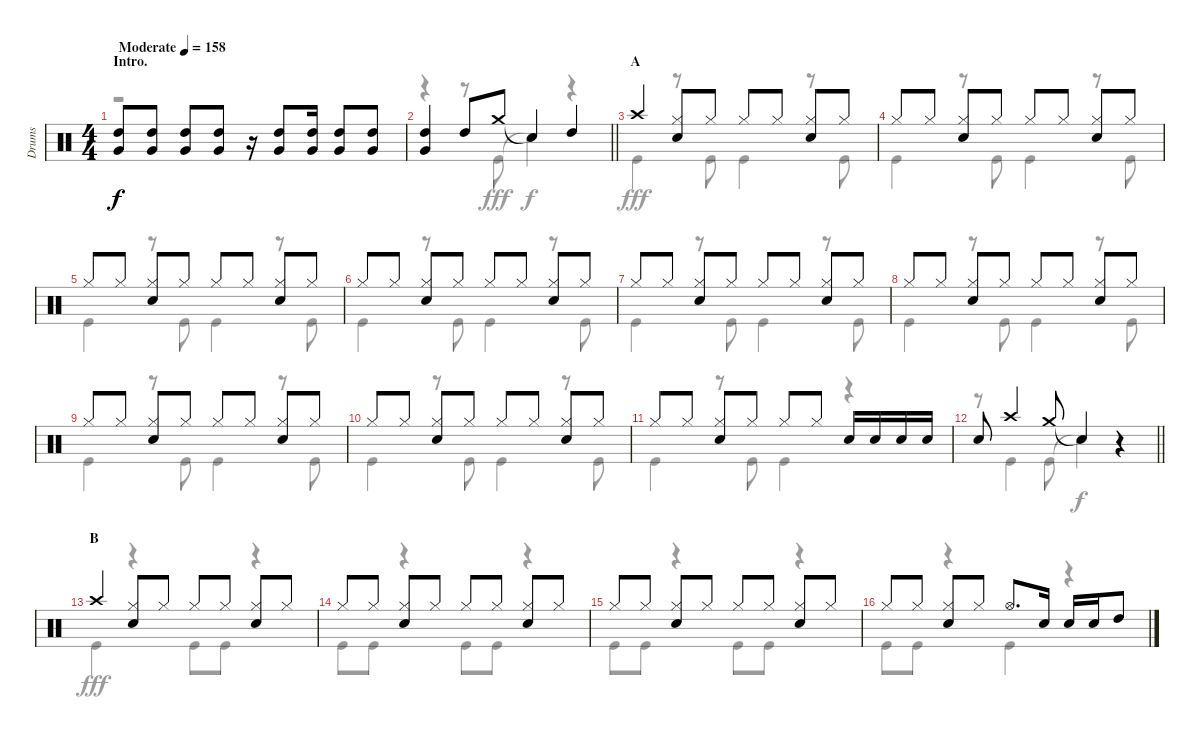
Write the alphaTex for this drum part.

\track ("Drums" "Drums") {instrument percussion}
\staff {score}
\articulation defaults
\voice
\ts (4 4)
\section ("" "Intro.")
\tempo (158 "Moderate")
\clef neutral
\ks c
("High Tom (hit)" "Very Low Tom (hit)").8{dy f} ("High Tom (hit)" "Very Low Tom (hit)").8 ("High Tom (hit)" "Very Low Tom (hit)").8 ("High Tom (hit)" "Very Low Tom (hit)").8 r.16 ("High Tom (hit)" "Very Low Tom (hit)").8 ("High Tom (hit)" "Very Low Tom (hit)").16 ("High Tom (hit)" "Very Low Tom (hit)").8 ("High Tom (hit)" "Very Low Tom (hit)").8 |
\barLineRight lightlight
("High Tom (hit)" "Very Low Tom (hit)").4 "High Tom (hit)".8 "Crash medium (hit)".8 "Snare (hit)"{t}.4 "High Tom (hit)".4 |
\section ("" "A")
"Crash high (hit)".4 ("Hi-Hat (closed)" "Snare (hit) 2").8 "Hi-Hat (closed)".8 "Hi-Hat (closed)".8 "Hi-Hat (closed)".8 ("Hi-Hat (closed)" "Snare (hit) 2").8 "Hi-Hat (closed)".8 |
"Hi-Hat (closed)".8 "Hi-Hat (closed)".8 ("Hi-Hat (closed)" "Snare (hit) 2").8 "Hi-Hat (closed)".8 "Hi-Hat (closed)".8 "Hi-Hat (closed)".8 ("Hi-Hat (closed)" "Snare (hit) 2").8 "Hi-Hat (closed)".8 |
"Hi-Hat (closed)".8 "Hi-Hat (closed)".8 ("Hi-Hat (closed)" "Snare (hit) 2").8 "Hi-Hat (closed)".8 "Hi-Hat (closed)".8 "Hi-Hat (closed)".8 ("Hi-Hat (closed)" "Snare (hit) 2").8 "Hi-Hat (closed)".8 |
"Hi-Hat (closed)".8 "Hi-Hat (closed)".8 ("Hi-Hat (closed)" "Snare (hit) 2").8 "Hi-Hat (closed)".8 "Hi-Hat (closed)".8 "Hi-Hat (closed)".8 ("Hi-Hat (closed)" "Snare (hit) 2").8 "Hi-Hat (closed)".8 |
"Hi-Hat (closed)".8 "Hi-Hat (closed)".8 ("Hi-Hat (closed)" "Snare (hit) 2").8 "Hi-Hat (closed)".8 "Hi-Hat (closed)".8 "Hi-Hat (closed)".8 ("Hi-Hat (closed)" "Snare (hit) 2").8 "Hi-Hat (closed)".8 |
"Hi-Hat (closed)".8 "Hi-Hat (closed)".8 ("Hi-Hat (closed)" "Snare (hit) 2").8 "Hi-Hat (closed)".8 "Hi-Hat (closed)".8 "Hi-Hat (closed)".8 ("Hi-Hat (closed)" "Snare (hit) 2").8 "Hi-Hat (closed)".8 |
"Hi-Hat (closed)".8 "Hi-Hat (closed)".8 ("Hi-Hat (closed)" "Snare (hit) 2").8 "Hi-Hat (closed)".8 "Hi-Hat (closed)".8 "Hi-Hat (closed)".8 ("Hi-Hat (closed)" "Snare (hit) 2").8 "Hi-Hat (closed)".8 |
"Hi-Hat (closed)".8 "Hi-Hat (closed)".8 ("Hi-Hat (closed)" "Snare (hit) 2").8 "Hi-Hat (closed)".8 "Hi-Hat (closed)".8 "Hi-Hat (closed)".8 ("Hi-Hat (closed)" "Snare (hit) 2").8 "Hi-Hat (closed)".8 |
"Hi-Hat (closed)".8 "Hi-Hat (closed)".8 ("Hi-Hat (closed)" "Snare (hit) 2").8 "Hi-Hat (closed)".8 "Hi-Hat (closed)".8 "Hi-Hat (closed)".8 "Snare (hit) 2".16 "Snare (hit) 2".16 "Snare (hit) 2".16 "Snare (hit) 2".16 |
\barLineRight lightlight "Snare (hit) 2".8 "Crash high (hit)".4 "Crash medium (hit)".8 "Snare (hit)"{t}.4
r.4 |
\section ("" "B")
"Crash high (hit)".4 ("Hi-Hat (closed)" "Snare (hit) 2").8 "Hi-Hat (closed)".8 "Hi-Hat (closed)".8 "Hi-Hat (closed)".8 ("Hi-Hat (closed)" "Snare (hit) 2").8 "Hi-Hat (closed)".8 |
"Hi-Hat (closed)".8 "Hi-Hat (closed)".8 ("Hi-Hat (closed)" "Snare (hit) 2").8 "Hi-Hat (closed)".8 "Hi-Hat (closed)".8 "Hi-Hat (closed)".8 ("Hi-Hat (closed)" "Snare (hit) 2").8 "Hi-Hat (closed)".8 |
"Hi-Hat (closed)".8 "Hi-Hat (closed)".8 ("Hi-Hat (closed)" "Snare (hit) 2").8 "Hi-Hat (closed)".8 "Hi-Hat (closed)".8 "Hi-Hat (closed)".8 ("Hi-Hat (closed)" "Snare (hit) 2").8 "Hi-Hat (closed)".8 |
"Hi-Hat (closed)".8 "Hi-Hat (closed)".8 ("Hi-Hat (closed)" "Snare (hit) 2").8 "Hi-Hat (closed)".8 "Hi-Hat (open)".8{d} "Snare (hit) 2".16 "Snare (hit) 2".16 "Snare (hit) 2".16 "High Tom (hit)".8
\voice
\clef neutral
\ottava regular
\simile none
\ks c
r.1{dy fff} |
\barLineRight lightlight
r.4 r.8 "Kick (hit)".8 "Snare (hit)"{t}.4{dy f} r.4 |
"Kick (hit)".4{dy fff} r.8 "Kick (hit)".8 "Kick (hit)".4 r.8 "Kick (hit)".8 |
"Kick (hit)".4 r.8 "Kick (hit)".8 "Kick (hit)".4 r.8 "Kick (hit)".8 |
"Kick (hit)".4 r.8 "Kick (hit)".8 "Kick (hit)".4 r.8 "Kick (hit)".8 |
"Kick (hit)".4 r.8 "Kick (hit)".8 "Kick (hit)".4 r.8 "Kick (hit)".8 |
"Kick (hit)".4 r.8 "Kick (hit)".8 "Kick (hit)".4 r.8 "Kick (hit)".8 |
"Kick (hit)".4 r.8 "Kick (hit)".8 "Kick (hit)".4 r.8 "Kick (hit)".8 |
"Kick (hit)".4 r.8 "Kick (hit)".8 "Kick (hit)".4 r.8 "Kick (hit)".8 |
"Kick (hit)".4 r.8 "Kick (hit)".8 "Kick (hit)".4 r.8 "Kick (hit)".8 |
"Kick (hit)".4 r.8 "Kick (hit)".8 "Kick (hit)".4 r.4 |
\barLineRight lightlight
r.8 "Kick (hit)".4 "Kick (hit)".8 "Snare (hit)"{t}.4{dy f} r.4 |
"Kick (hit)".4{dy fff} r.4 "Kick (hit)".8 "Kick (hit)".8 r.4 |
"Kick (hit)".8 "Kick (hit)".8 r.4 "Kick (hit)".8 "Kick (hit)".8 r.4 |
"Kick (hit)".8 "Kick (hit)".8 r.4 "Kick (hit)".8 "Kick (hit)".8 r.4 |
"Kick (hit)".8 "Kick (hit)".8 r.4 "Kick (hit)".4 r.4
